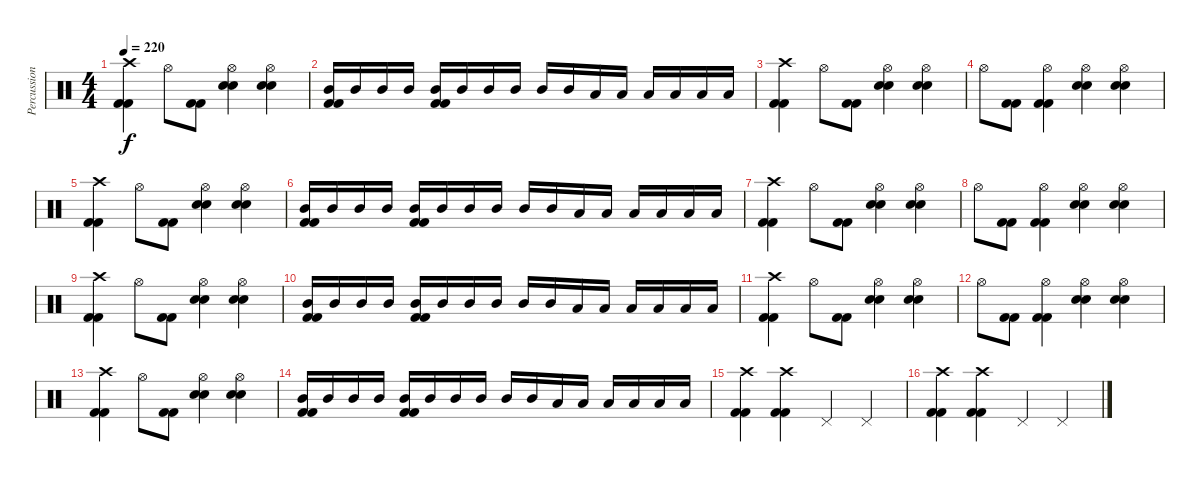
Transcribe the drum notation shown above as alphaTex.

\track ("Percussion" "Percussion") {instrument percussion}
\staff {score}
\articulation defaults
\ts (4 4)
\tempo 220
\clef neutral
\ks c
("Crash high (hit)" "Kick (hit) 2" "Kick (hit) 2").4{dy f} "Hi-Hat (open)".8 ("Kick (hit) 2" "Kick (hit) 2").8 ("Hi-Hat (open)" "Electric Snare (hit)" "Electric Snare (hit)").4 ("Hi-Hat (open)" "Electric Snare (hit)" "Electric Snare (hit)").4 |
("Mid Tom (hit)" "Kick (hit) 2" "Kick (hit) 2").16 "Mid Tom (hit)".16 "Mid Tom (hit)".16 "Mid Tom (hit)".16 ("Mid Tom (hit)" "Kick (hit) 2" "Kick (hit) 2").16 "Mid Tom (hit)".16 "Mid Tom (hit)".16 "Mid Tom (hit)".16 "Mid Tom (hit)".16 "Mid Tom (hit)".16 "Low Tom (hit)".16 "Low Tom (hit)".16 "Low Tom (hit)".16 "Low Tom (hit)".16 "Low Tom (hit)".16 "Low Tom (hit)".16 |
("Crash high (hit)" "Kick (hit) 2" "Kick (hit) 2").4 "Hi-Hat (open)".8 ("Kick (hit) 2" "Kick (hit) 2").8 ("Hi-Hat (open)" "Electric Snare (hit)" "Electric Snare (hit)").4 ("Hi-Hat (open)" "Electric Snare (hit)" "Electric Snare (hit)").4 |
"Hi-Hat (open)".8 ("Kick (hit) 2" "Kick (hit) 2").8 ("Hi-Hat (open)" "Kick (hit) 2" "Kick (hit) 2").4 ("Hi-Hat (open)" "Electric Snare (hit)" "Electric Snare (hit)").4 ("Hi-Hat (open)" "Electric Snare (hit)" "Electric Snare (hit)").4 |
("Crash high (hit)" "Kick (hit) 2" "Kick (hit) 2").4 "Hi-Hat (open)".8 ("Kick (hit) 2" "Kick (hit) 2").8 ("Hi-Hat (open)" "Electric Snare (hit)" "Electric Snare (hit)").4 ("Hi-Hat (open)" "Electric Snare (hit)" "Electric Snare (hit)").4 |
("Mid Tom (hit)" "Kick (hit) 2" "Kick (hit) 2").16 "Mid Tom (hit)".16 "Mid Tom (hit)".16 "Mid Tom (hit)".16 ("Mid Tom (hit)" "Kick (hit) 2" "Kick (hit) 2").16 "Mid Tom (hit)".16 "Mid Tom (hit)".16 "Mid Tom (hit)".16 "Mid Tom (hit)".16 "Mid Tom (hit)".16 "Low Tom (hit)".16 "Low Tom (hit)".16 "Low Tom (hit)".16 "Low Tom (hit)".16 "Low Tom (hit)".16 "Low Tom (hit)".16 |
("Crash high (hit)" "Kick (hit) 2" "Kick (hit) 2").4 "Hi-Hat (open)".8 ("Kick (hit) 2" "Kick (hit) 2").8 ("Hi-Hat (open)" "Electric Snare (hit)" "Electric Snare (hit)").4 ("Hi-Hat (open)" "Electric Snare (hit)" "Electric Snare (hit)").4 |
"Hi-Hat (open)".8 ("Kick (hit) 2" "Kick (hit) 2").8 ("Hi-Hat (open)" "Kick (hit) 2" "Kick (hit) 2").4 ("Hi-Hat (open)" "Electric Snare (hit)" "Electric Snare (hit)").4 ("Hi-Hat (open)" "Electric Snare (hit)" "Electric Snare (hit)").4 |
("Crash high (hit)" "Kick (hit) 2" "Kick (hit) 2").4 "Hi-Hat (open)".8 ("Kick (hit) 2" "Kick (hit) 2").8 ("Hi-Hat (open)" "Electric Snare (hit)" "Electric Snare (hit)").4 ("Hi-Hat (open)" "Electric Snare (hit)" "Electric Snare (hit)").4 |
("Mid Tom (hit)" "Kick (hit) 2" "Kick (hit) 2").16 "Mid Tom (hit)".16 "Mid Tom (hit)".16 "Mid Tom (hit)".16 ("Mid Tom (hit)" "Kick (hit) 2" "Kick (hit) 2").16 "Mid Tom (hit)".16 "Mid Tom (hit)".16 "Mid Tom (hit)".16 "Mid Tom (hit)".16 "Mid Tom (hit)".16 "Low Tom (hit)".16 "Low Tom (hit)".16 "Low Tom (hit)".16 "Low Tom (hit)".16 "Low Tom (hit)".16 "Low Tom (hit)".16 |
("Crash high (hit)" "Kick (hit) 2" "Kick (hit) 2").4 "Hi-Hat (open)".8 ("Kick (hit) 2" "Kick (hit) 2").8 ("Hi-Hat (open)" "Electric Snare (hit)" "Electric Snare (hit)").4 ("Hi-Hat (open)" "Electric Snare (hit)" "Electric Snare (hit)").4 |
"Hi-Hat (open)".8 ("Kick (hit) 2" "Kick (hit) 2").8 ("Hi-Hat (open)" "Kick (hit) 2" "Kick (hit) 2").4 ("Hi-Hat (open)" "Electric Snare (hit)" "Electric Snare (hit)").4 ("Hi-Hat (open)" "Electric Snare (hit)" "Electric Snare (hit)").4 |
("Crash high (hit)" "Kick (hit) 2" "Kick (hit) 2").4 "Hi-Hat (open)".8 ("Kick (hit) 2" "Kick (hit) 2").8 ("Hi-Hat (open)" "Electric Snare (hit)" "Electric Snare (hit)").4 ("Hi-Hat (open)" "Electric Snare (hit)" "Electric Snare (hit)").4 |
("Mid Tom (hit)" "Kick (hit) 2" "Kick (hit) 2").16 "Mid Tom (hit)".16 "Mid Tom (hit)".16 "Mid Tom (hit)".16 ("Mid Tom (hit)" "Kick (hit) 2" "Kick (hit) 2").16 "Mid Tom (hit)".16 "Mid Tom (hit)".16 "Mid Tom (hit)".16 "Mid Tom (hit)".16 "Mid Tom (hit)".16 "Low Tom (hit)".16 "Low Tom (hit)".16 "Low Tom (hit)".16 "Low Tom (hit)".16 "Low Tom (hit)".16 "Low Tom (hit)".16 |
("Crash high (hit)" "Kick (hit) 2" "Kick (hit) 2").4 ("Crash high (hit)" "Kick (hit) 2" "Kick (hit) 2").4 "Pedal Hi-Hat (hit)".4 "Pedal Hi-Hat (hit)".4 |
("Crash high (hit)" "Kick (hit) 2" "Kick (hit) 2").4 ("Crash high (hit)" "Kick (hit) 2" "Kick (hit) 2").4 "Pedal Hi-Hat (hit)".4 "Pedal Hi-Hat (hit)".4
